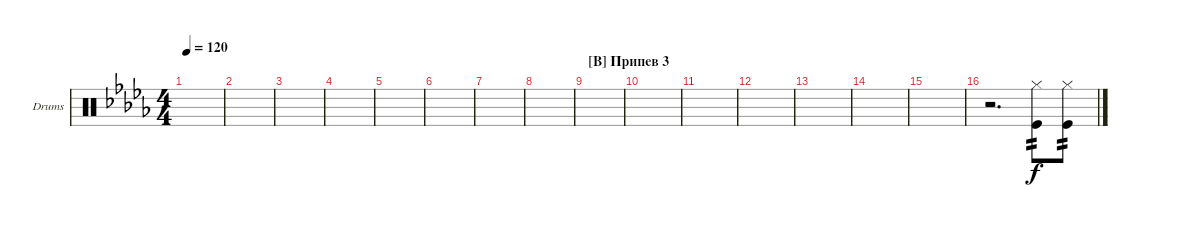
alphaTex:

\defaultSystemsLayout 4
\bracketExtendMode groupsimilarinstruments
\firstSystemTrackNameOrientation horizontal
\otherSystemsTrackNameOrientation horizontal
\track ("Ударные" "Drums") {instrument percussion}
\staff {score}
\articulation defaults
\ts (4 4)
\tempo 120
\clef neutral
\ks db
|
|
|
|
|
|
|
|
\section ("B" "Припев 3")
|
|
|
|
|
|
|
r.2{d} ("Hi-Hat (closed)" "Kick (hit)").8{tp 2} ("Hi-Hat (closed)" "Kick (hit)").8{tp 2}
